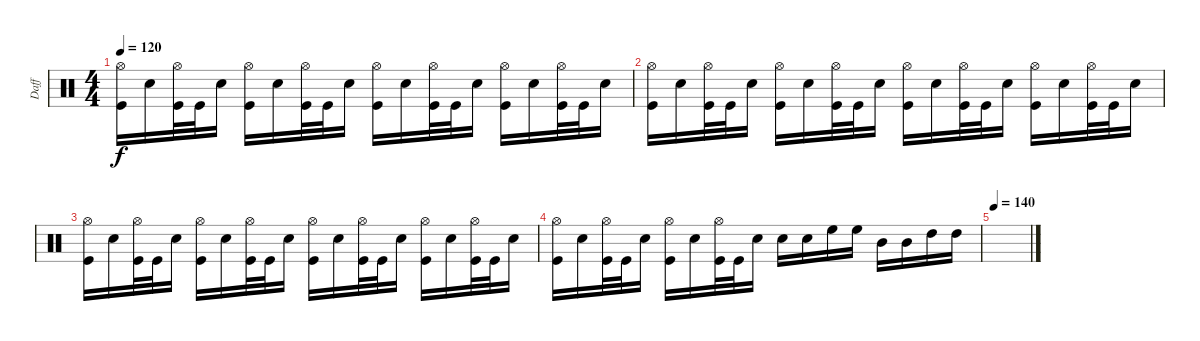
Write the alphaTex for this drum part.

\track ("Daff" "Daff") {instrument percussion}
\staff {score}
\articulation defaults
\ts (4 4)
\tempo 120
\clef neutral
\ks c
("Hi-Hat (open)" "Kick (hit)").16{dy f} "Electric Snare (hit)".16 ("Hi-Hat (open)" "Kick (hit)").32 "Kick (hit)".32 "Electric Snare (hit)".16 ("Hi-Hat (open)" "Kick (hit)").16 "Electric Snare (hit)".16 ("Hi-Hat (open)" "Kick (hit)").32 "Kick (hit)".32 "Electric Snare (hit)".16 ("Hi-Hat (open)" "Kick (hit)").16 "Electric Snare (hit)".16 ("Hi-Hat (open)" "Kick (hit)").32 "Kick (hit)".32 "Electric Snare (hit)".16 ("Hi-Hat (open)" "Kick (hit)").16 "Electric Snare (hit)".16 ("Hi-Hat (open)" "Kick (hit)").32 "Kick (hit)".32 "Electric Snare (hit)".16 |
("Hi-Hat (open)" "Kick (hit)").16 "Electric Snare (hit)".16 ("Hi-Hat (open)" "Kick (hit)").32 "Kick (hit)".32 "Electric Snare (hit)".16 ("Hi-Hat (open)" "Kick (hit)").16 "Electric Snare (hit)".16 ("Hi-Hat (open)" "Kick (hit)").32 "Kick (hit)".32 "Electric Snare (hit)".16 ("Hi-Hat (open)" "Kick (hit)").16 "Electric Snare (hit)".16 ("Hi-Hat (open)" "Kick (hit)").32 "Kick (hit)".32 "Electric Snare (hit)".16 ("Hi-Hat (open)" "Kick (hit)").16 "Electric Snare (hit)".16 ("Hi-Hat (open)" "Kick (hit)").32 "Kick (hit)".32 "Electric Snare (hit)".16 |
("Hi-Hat (open)" "Kick (hit)").16 "Electric Snare (hit)".16 ("Hi-Hat (open)" "Kick (hit)").32 "Kick (hit)".32 "Electric Snare (hit)".16 ("Hi-Hat (open)" "Kick (hit)").16 "Electric Snare (hit)".16 ("Hi-Hat (open)" "Kick (hit)").32 "Kick (hit)".32 "Electric Snare (hit)".16 ("Hi-Hat (open)" "Kick (hit)").16 "Electric Snare (hit)".16 ("Hi-Hat (open)" "Kick (hit)").32 "Kick (hit)".32 "Electric Snare (hit)".16 ("Hi-Hat (open)" "Kick (hit)").16 "Electric Snare (hit)".16 ("Hi-Hat (open)" "Kick (hit)").32 "Kick (hit)".32 "Electric Snare (hit)".16 |
("Hi-Hat (open)" "Kick (hit)").16 "Electric Snare (hit)".16 ("Hi-Hat (open)" "Kick (hit)").32 "Kick (hit)".32 "Electric Snare (hit)".16 ("Hi-Hat (open)" "Kick (hit)").16 "Electric Snare (hit)".16 ("Hi-Hat (open)" "Kick (hit)").32 "Kick (hit)".32 "Electric Snare (hit)".16 "Electric Snare (hit)".16 "Electric Snare (hit)".16 "High Floor Tom (hit)".16 "High Floor Tom (hit)".16 "Mid Tom (hit)".16 "Mid Tom (hit)".16 "High Tom (hit)".16 "High Tom (hit)".16 |
\tempo 140
